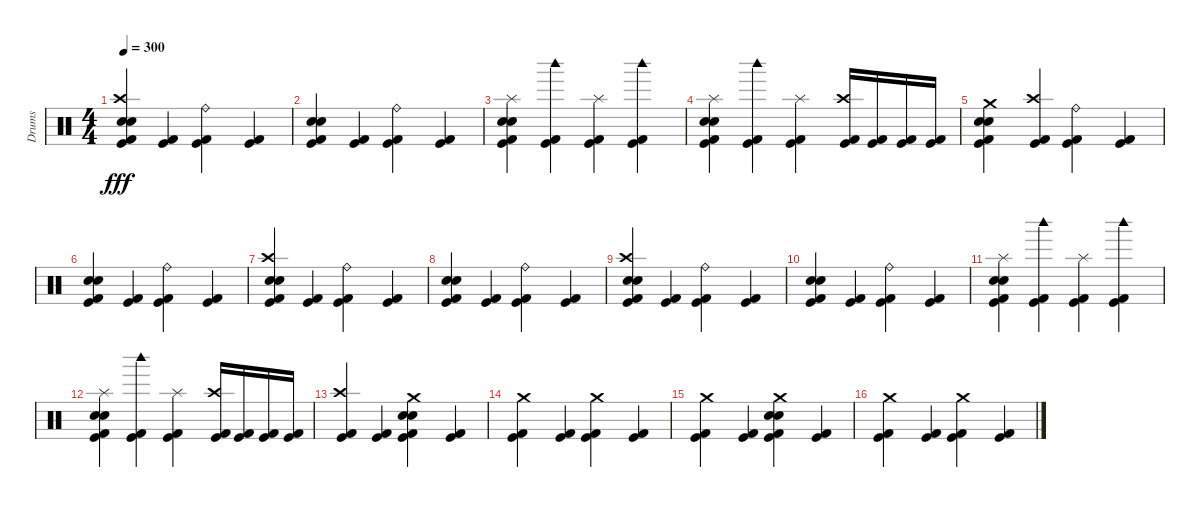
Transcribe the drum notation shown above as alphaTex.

\track ("Drums" "Drums") {instrument percussion}
\staff {score}
\articulation defaults
\ts (4 4)
\tempo 300
\clef neutral
\ks c
("Kick (hit) 2" "Crash high (hit)" "Snare (hit) 2" "Electric Snare (hit)" "Kick (hit)").4{dy fff} ("Kick (hit) 2" "Kick (hit)").4 ("Kick (hit) 2" "Ride (bell)" "Kick (hit)").4 ("Kick (hit) 2" "Kick (hit)").4 |
("Kick (hit) 2" "Snare (hit) 2" "Electric Snare (hit)" "Kick (hit)").4 ("Kick (hit) 2" "Kick (hit)").4 ("Kick (hit) 2" "Ride (bell)" "Kick (hit)").4 ("Kick (hit) 2" "Kick (hit)").4 |
("Kick (hit) 2" "Electric Snare (hit)" "Snare (hit) 2" "Kick (hit)" "Splash (hit)").4 ("Kick (hit) 2" "Kick (hit)" "Woodblock high (hit)").4 ("Kick (hit) 2" "Kick (hit)" "Splash (hit)").4 ("Kick (hit) 2" "Kick (hit)" "Woodblock high (hit)").4 |
("Kick (hit) 2" "Electric Snare (hit)" "Snare (hit) 2" "Kick (hit)" "Splash (hit)").4 ("Kick (hit) 2" "Woodblock high (hit)" "Kick (hit)").4 ("Kick (hit) 2" "Kick (hit)" "Splash (hit)").4 ("Kick (hit) 2" "Crash high (hit)" "Kick (hit)").16 ("Kick (hit) 2" "Kick (hit)").16 ("Kick (hit) 2" "Kick (hit)").16 ("Kick (hit) 2" "Kick (hit)").16 |
("Crash medium (hit)" "Kick (hit) 2" "Kick (hit)" "Snare (hit) 2" "Electric Snare (hit)").4 ("Kick (hit) 2" "Kick (hit)" "Crash high (hit)").4 ("Kick (hit) 2" "Ride (bell)" "Kick (hit)").4 ("Kick (hit) 2" "Kick (hit)").4 |
("Kick (hit) 2" "Kick (hit)" "Snare (hit) 2" "Electric Snare (hit)").4 ("Kick (hit) 2" "Kick (hit)").4 ("Kick (hit) 2" "Ride (bell)" "Kick (hit)").4 ("Kick (hit) 2" "Kick (hit)").4 |
("Kick (hit) 2" "Crash high (hit)" "Kick (hit)" "Snare (hit) 2" "Electric Snare (hit)").4 ("Kick (hit) 2" "Kick (hit)").4 ("Kick (hit) 2" "Ride (bell)" "Kick (hit)").4 ("Kick (hit) 2" "Kick (hit)").4 |
("Kick (hit) 2" "Electric Snare (hit)" "Kick (hit)" "Snare (hit) 2").4 ("Kick (hit) 2" "Kick (hit)").4 ("Kick (hit) 2" "Ride (bell)" "Kick (hit)").4 ("Kick (hit) 2" "Kick (hit)").4 |
("Kick (hit) 2" "Crash high (hit)" "Snare (hit) 2" "Electric Snare (hit)" "Kick (hit)").4 ("Kick (hit) 2" "Kick (hit)").4 ("Kick (hit) 2" "Ride (bell)" "Kick (hit)").4 ("Kick (hit) 2" "Kick (hit)").4 |
("Kick (hit) 2" "Snare (hit) 2" "Electric Snare (hit)" "Kick (hit)").4 ("Kick (hit) 2" "Kick (hit)").4 ("Kick (hit) 2" "Ride (bell)" "Kick (hit)").4 ("Kick (hit) 2" "Kick (hit)").4 |
("Kick (hit) 2" "Electric Snare (hit)" "Snare (hit) 2" "Kick (hit)" "Splash (hit)").4 ("Kick (hit) 2" "Kick (hit)" "Woodblock high (hit)").4 ("Kick (hit) 2" "Kick (hit)" "Splash (hit)").4 ("Kick (hit) 2" "Kick (hit)" "Woodblock high (hit)").4 |
("Kick (hit) 2" "Electric Snare (hit)" "Snare (hit) 2" "Kick (hit)" "Splash (hit)").4 ("Kick (hit) 2" "Woodblock high (hit)" "Kick (hit)").4 ("Kick (hit) 2" "Kick (hit)" "Splash (hit)").4 ("Kick (hit) 2" "Crash high (hit)" "Kick (hit)").16 ("Kick (hit) 2" "Kick (hit)").16 ("Kick (hit) 2" "Kick (hit)").16 ("Kick (hit) 2" "Kick (hit)").16 |
("Kick (hit) 2" "Crash high (hit)" "Kick (hit)").4 ("Kick (hit) 2" "Kick (hit)").4 ("Kick (hit) 2" "Crash medium (hit)" "Electric Snare (hit)" "Snare (hit) 2" "Kick (hit)").4 ("Kick (hit) 2" "Kick (hit)").4 |
("Kick (hit) 2" "Kick (hit)" "Crash medium (hit)").4 ("Kick (hit) 2" "Kick (hit)").4 ("Kick (hit) 2" "Kick (hit)" "Crash medium (hit)").4 ("Kick (hit) 2" "Kick (hit)").4 |
("Kick (hit) 2" "Crash medium (hit)" "Kick (hit)").4 ("Kick (hit) 2" "Kick (hit)").4 ("Kick (hit) 2" "Electric Snare (hit)" "Snare (hit) 2" "Crash medium (hit)" "Kick (hit)").4 ("Kick (hit) 2" "Kick (hit)").4 |
("Kick (hit) 2" "Kick (hit)" "Crash medium (hit)").4 ("Kick (hit) 2" "Kick (hit)").4 ("Kick (hit) 2" "Kick (hit)" "Crash medium (hit)").4 ("Kick (hit) 2" "Kick (hit)").4
